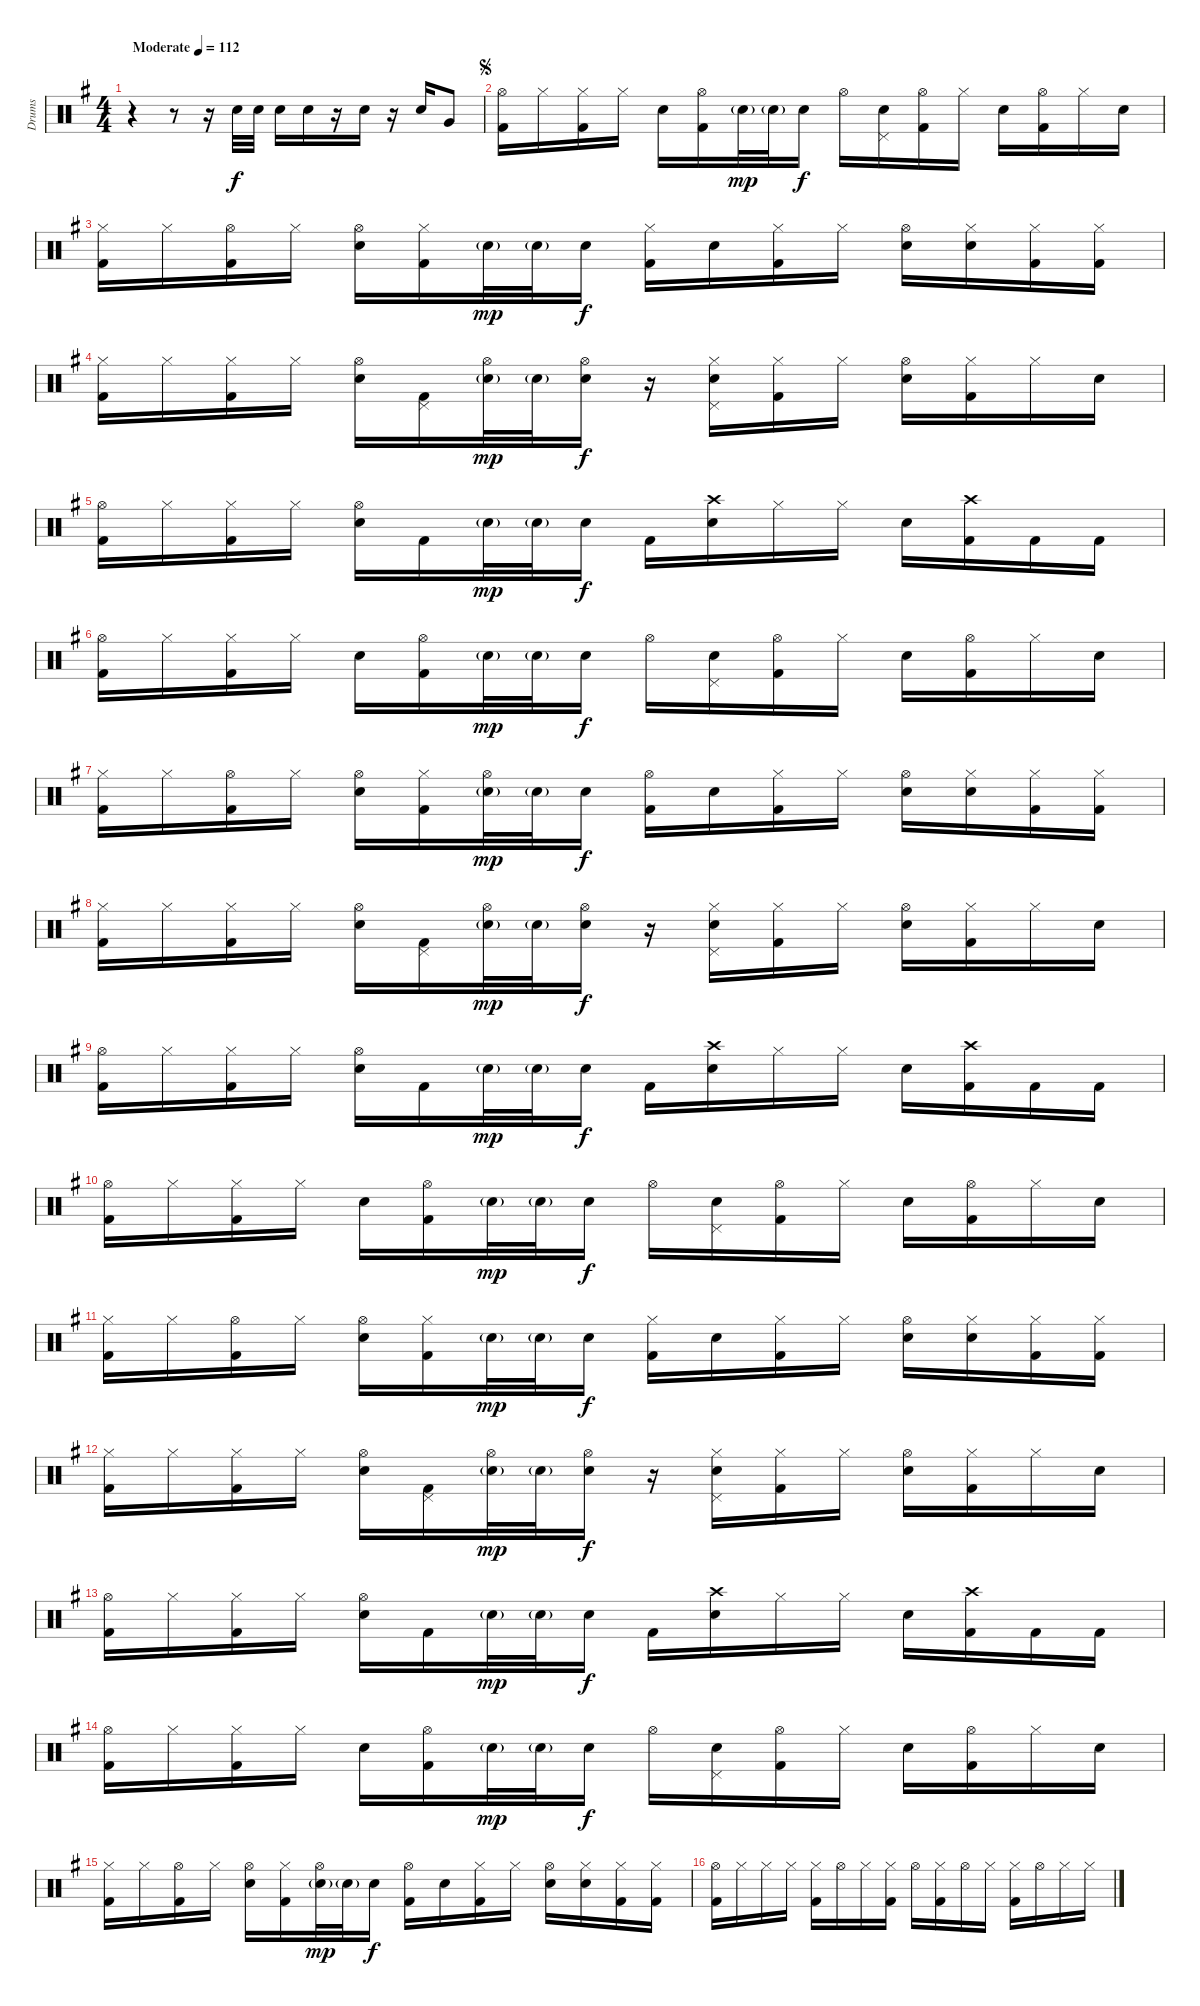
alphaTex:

\track ("Drums" "Drums") {instrument percussion}
\staff {score}
\articulation defaults
\ts (4 4)
\tempo (112 "Moderate")
\clef neutral
\ks g
r.4{dy f} r.8 r.16 "Electric Snare (hit)".32 "Electric Snare (hit)".32 "Electric Snare (hit)".16 "Electric Snare (hit)".16 r.16 "Electric Snare (hit)".16 r.16 "Electric Snare (hit)".16 "Very Low Tom (hit)".8 |
\jump segno
("Hi-Hat (open)" "Kick (hit) 2").16 "Hi-Hat (closed)".16 ("Hi-Hat (closed)" "Kick (hit) 2").16 "Hi-Hat (closed)".16 "Electric Snare (hit)".16 ("Hi-Hat (open)" "Kick (hit) 2").16 "Electric Snare (hit)"{g}.32{dy mp} "Electric Snare (hit)"{g}.32 "Electric Snare (hit)".16{dy f} "Hi-Hat (open)".16 ("Electric Snare (hit)" "Pedal Hi-Hat (hit)").16 ("Hi-Hat (open)" "Kick (hit) 2").16 "Hi-Hat (closed)".16 "Electric Snare (hit)".16 ("Hi-Hat (open)" "Kick (hit) 2").16 "Hi-Hat (closed)".16 "Electric Snare (hit)".16 |
("Hi-Hat (closed)" "Kick (hit) 2").16 "Hi-Hat (closed)".16 ("Hi-Hat (open)" "Kick (hit) 2").16 "Hi-Hat (closed)".16 ("Hi-Hat (open)" "Electric Snare (hit)").16 ("Hi-Hat (closed)" "Kick (hit) 2").16 "Electric Snare (hit)"{g}.32{dy mp} "Electric Snare (hit)"{g}.32 "Electric Snare (hit)".16{dy f} ("Hi-Hat (closed)" "Kick (hit) 2").16 "Electric Snare (hit)".16 ("Hi-Hat (closed)" "Kick (hit) 2").16 "Hi-Hat (closed)".16 ("Hi-Hat (open)" "Electric Snare (hit)").16 ("Hi-Hat (closed)" "Electric Snare (hit)").16 ("Hi-Hat (closed)" "Kick (hit) 2").16 ("Hi-Hat (closed)" "Kick (hit) 2").16 |
("Hi-Hat (closed)" "Kick (hit) 2").16 "Hi-Hat (closed)".16 ("Hi-Hat (closed)" "Kick (hit) 2").16 "Hi-Hat (closed)".16 ("Hi-Hat (open)" "Electric Snare (hit)").16 ("Pedal Hi-Hat (hit)" "Kick (hit) 2").16 ("Hi-Hat (open)" "Electric Snare (hit)"{g}).32{dy mp} "Electric Snare (hit)"{g}.32 ("Hi-Hat (open)" "Electric Snare (hit)").16{dy f} r.16 ("Hi-Hat (closed)" "Electric Snare (hit)" "Pedal Hi-Hat (hit)").16 ("Hi-Hat (closed)" "Kick (hit) 2").16 "Hi-Hat (closed)".16 ("Hi-Hat (open)" "Electric Snare (hit)").16 ("Hi-Hat (closed)" "Kick (hit) 2").16 "Hi-Hat (closed)".16 "Electric Snare (hit)".16 |
("Hi-Hat (open)" "Kick (hit) 2").16 "Hi-Hat (closed)".16 ("Hi-Hat (closed)" "Kick (hit) 2").16 "Hi-Hat (closed)".16 ("Hi-Hat (open)" "Electric Snare (hit)").16 "Kick (hit) 2".16 "Electric Snare (hit)"{g}.32{dy mp} "Electric Snare (hit)"{g}.32 "Electric Snare (hit)".16{dy f} "Kick (hit) 2".16 ("Crash high (hit)" "Electric Snare (hit)").16 "Hi-Hat (closed)".16 "Hi-Hat (closed)".16 "Electric Snare (hit)".16 ("Crash high (hit)" "Kick (hit) 2").16 "Kick (hit) 2".16 "Kick (hit) 2".16 |
("Hi-Hat (open)" "Kick (hit) 2").16 "Hi-Hat (closed)".16 ("Hi-Hat (closed)" "Kick (hit) 2").16 "Hi-Hat (closed)".16 "Electric Snare (hit)".16 ("Hi-Hat (open)" "Kick (hit) 2").16 "Electric Snare (hit)"{g}.32{dy mp} "Electric Snare (hit)"{g}.32 "Electric Snare (hit)".16{dy f} "Hi-Hat (open)".16 ("Electric Snare (hit)" "Pedal Hi-Hat (hit)").16 ("Hi-Hat (open)" "Kick (hit) 2").16 "Hi-Hat (closed)".16 "Electric Snare (hit)".16 ("Hi-Hat (open)" "Kick (hit) 2").16 "Hi-Hat (closed)".16 "Electric Snare (hit)".16 |
("Hi-Hat (closed)" "Kick (hit) 2").16 "Hi-Hat (closed)".16 ("Hi-Hat (open)" "Kick (hit) 2").16 "Hi-Hat (closed)".16 ("Hi-Hat (open)" "Electric Snare (hit)").16 ("Hi-Hat (closed)" "Kick (hit) 2").16 ("Hi-Hat (open)" "Electric Snare (hit)"{g}).32{dy mp} "Electric Snare (hit)"{g}.32 "Electric Snare (hit)".16{dy f} ("Hi-Hat (open)" "Kick (hit) 2").16 "Electric Snare (hit)".16 ("Hi-Hat (closed)" "Kick (hit) 2").16 "Hi-Hat (closed)".16 ("Hi-Hat (open)" "Electric Snare (hit)").16 ("Hi-Hat (closed)" "Electric Snare (hit)").16 ("Hi-Hat (closed)" "Kick (hit) 2").16 ("Hi-Hat (closed)" "Kick (hit) 2").16 |
("Hi-Hat (closed)" "Kick (hit) 2").16 "Hi-Hat (closed)".16 ("Hi-Hat (closed)" "Kick (hit) 2").16 "Hi-Hat (closed)".16 ("Hi-Hat (open)" "Electric Snare (hit)").16 ("Pedal Hi-Hat (hit)" "Kick (hit) 2").16 ("Hi-Hat (open)" "Electric Snare (hit)"{g}).32{dy mp} "Electric Snare (hit)"{g}.32 ("Hi-Hat (open)" "Electric Snare (hit)").16{dy f} r.16 ("Hi-Hat (closed)" "Electric Snare (hit)" "Pedal Hi-Hat (hit)").16 ("Hi-Hat (closed)" "Kick (hit) 2").16 "Hi-Hat (closed)".16 ("Hi-Hat (open)" "Electric Snare (hit)").16 ("Hi-Hat (closed)" "Kick (hit) 2").16 "Hi-Hat (closed)".16 "Electric Snare (hit)".16 |
("Hi-Hat (open)" "Kick (hit) 2").16 "Hi-Hat (closed)".16 ("Hi-Hat (closed)" "Kick (hit) 2").16 "Hi-Hat (closed)".16 ("Hi-Hat (open)" "Electric Snare (hit)").16 "Kick (hit) 2".16 "Electric Snare (hit)"{g}.32{dy mp} "Electric Snare (hit)"{g}.32 "Electric Snare (hit)".16{dy f} "Kick (hit) 2".16 ("Crash high (hit)" "Electric Snare (hit)").16 "Hi-Hat (closed)".16 "Hi-Hat (closed)".16 "Electric Snare (hit)".16 ("Crash high (hit)" "Kick (hit) 2").16 "Kick (hit) 2".16 "Kick (hit) 2".16 |
("Hi-Hat (open)" "Kick (hit) 2").16 "Hi-Hat (closed)".16 ("Hi-Hat (closed)" "Kick (hit) 2").16 "Hi-Hat (closed)".16 "Electric Snare (hit)".16 ("Hi-Hat (open)" "Kick (hit) 2").16 "Electric Snare (hit)"{g}.32{dy mp} "Electric Snare (hit)"{g}.32 "Electric Snare (hit)".16{dy f} "Hi-Hat (open)".16 ("Electric Snare (hit)" "Pedal Hi-Hat (hit)").16 ("Hi-Hat (open)" "Kick (hit) 2").16 "Hi-Hat (closed)".16 "Electric Snare (hit)".16 ("Hi-Hat (open)" "Kick (hit) 2").16 "Hi-Hat (closed)".16 "Electric Snare (hit)".16 |
("Hi-Hat (closed)" "Kick (hit) 2").16 "Hi-Hat (closed)".16 ("Hi-Hat (open)" "Kick (hit) 2").16 "Hi-Hat (closed)".16 ("Hi-Hat (open)" "Electric Snare (hit)").16 ("Hi-Hat (closed)" "Kick (hit) 2").16 "Electric Snare (hit)"{g}.32{dy mp} "Electric Snare (hit)"{g}.32 "Electric Snare (hit)".16{dy f} ("Hi-Hat (closed)" "Kick (hit) 2").16 "Electric Snare (hit)".16 ("Hi-Hat (closed)" "Kick (hit) 2").16 "Hi-Hat (closed)".16 ("Hi-Hat (open)" "Electric Snare (hit)").16 ("Hi-Hat (closed)" "Electric Snare (hit)").16 ("Hi-Hat (closed)" "Kick (hit) 2").16 ("Hi-Hat (closed)" "Kick (hit) 2").16 |
("Hi-Hat (closed)" "Kick (hit) 2").16 "Hi-Hat (closed)".16 ("Hi-Hat (closed)" "Kick (hit) 2").16 "Hi-Hat (closed)".16 ("Hi-Hat (open)" "Electric Snare (hit)").16 ("Pedal Hi-Hat (hit)" "Kick (hit) 2").16 ("Hi-Hat (open)" "Electric Snare (hit)"{g}).32{dy mp} "Electric Snare (hit)"{g}.32 ("Hi-Hat (open)" "Electric Snare (hit)").16{dy f} r.16 ("Hi-Hat (closed)" "Electric Snare (hit)" "Pedal Hi-Hat (hit)").16 ("Hi-Hat (closed)" "Kick (hit) 2").16 "Hi-Hat (closed)".16 ("Hi-Hat (open)" "Electric Snare (hit)").16 ("Hi-Hat (closed)" "Kick (hit) 2").16 "Hi-Hat (closed)".16 "Electric Snare (hit)".16 |
("Hi-Hat (open)" "Kick (hit) 2").16 "Hi-Hat (closed)".16 ("Hi-Hat (closed)" "Kick (hit) 2").16 "Hi-Hat (closed)".16 ("Hi-Hat (open)" "Electric Snare (hit)").16 "Kick (hit) 2".16 "Electric Snare (hit)"{g}.32{dy mp} "Electric Snare (hit)"{g}.32 "Electric Snare (hit)".16{dy f} "Kick (hit) 2".16 ("Crash high (hit)" "Electric Snare (hit)").16 "Hi-Hat (closed)".16 "Hi-Hat (closed)".16 "Electric Snare (hit)".16 ("Crash high (hit)" "Kick (hit) 2").16 "Kick (hit) 2".16 "Kick (hit) 2".16 |
("Hi-Hat (open)" "Kick (hit) 2").16 "Hi-Hat (closed)".16 ("Hi-Hat (closed)" "Kick (hit) 2").16 "Hi-Hat (closed)".16 "Electric Snare (hit)".16 ("Hi-Hat (open)" "Kick (hit) 2").16 "Electric Snare (hit)"{g}.32{dy mp} "Electric Snare (hit)"{g}.32 "Electric Snare (hit)".16{dy f} "Hi-Hat (open)".16 ("Electric Snare (hit)" "Pedal Hi-Hat (hit)").16 ("Hi-Hat (open)" "Kick (hit) 2").16 "Hi-Hat (closed)".16 "Electric Snare (hit)".16 ("Hi-Hat (open)" "Kick (hit) 2").16 "Hi-Hat (closed)".16 "Electric Snare (hit)".16 |
("Hi-Hat (closed)" "Kick (hit) 2").16 "Hi-Hat (closed)".16 ("Hi-Hat (open)" "Kick (hit) 2").16 "Hi-Hat (closed)".16 ("Hi-Hat (open)" "Electric Snare (hit)").16 ("Hi-Hat (closed)" "Kick (hit) 2").16 ("Hi-Hat (open)" "Electric Snare (hit)"{g}).32{dy mp} "Electric Snare (hit)"{g}.32 "Electric Snare (hit)".16{dy f} ("Hi-Hat (open)" "Kick (hit) 2").16 "Electric Snare (hit)".16 ("Hi-Hat (closed)" "Kick (hit) 2").16 "Hi-Hat (closed)".16 ("Hi-Hat (open)" "Electric Snare (hit)").16 ("Hi-Hat (closed)" "Electric Snare (hit)").16 ("Hi-Hat (closed)" "Kick (hit) 2").16 ("Hi-Hat (closed)" "Kick (hit) 2").16 |
("Hi-Hat (open)" "Kick (hit) 2").16 "Hi-Hat (closed)".16 "Hi-Hat (closed)".16 "Hi-Hat (closed)".16 ("Hi-Hat (closed)" "Kick (hit) 2").16 "Hi-Hat (open)".16 "Hi-Hat (closed)".16 ("Hi-Hat (closed)" "Kick (hit) 2").16 "Hi-Hat (open)".16 ("Hi-Hat (closed)" "Kick (hit) 2").16 "Hi-Hat (open)".16 "Hi-Hat (closed)".16 ("Hi-Hat (closed)" "Kick (hit) 2").16 "Hi-Hat (open)".16 "Hi-Hat (closed)".16 "Hi-Hat (closed)".16
